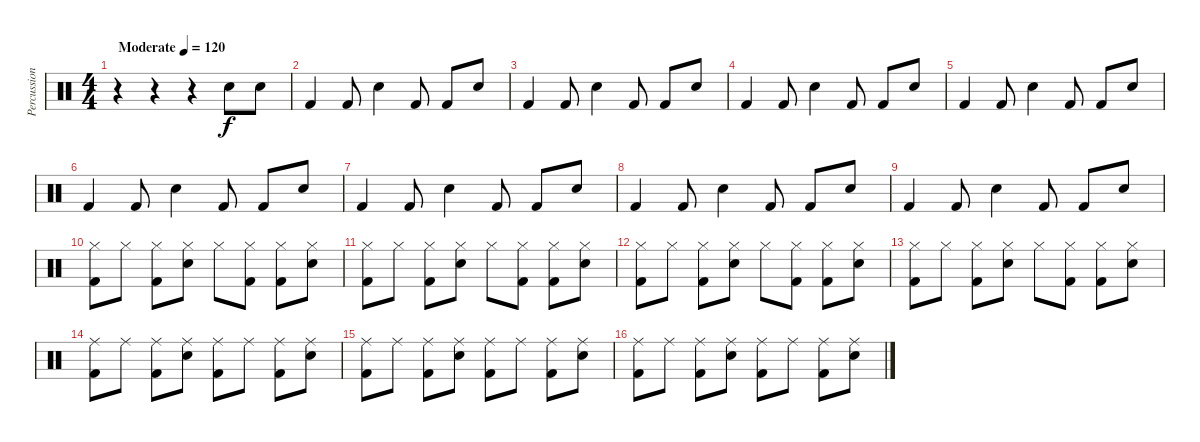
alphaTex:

\track ("Percussions" "Percussion") {instrument percussion}
\staff {score}
\articulation defaults
\ts (4 4)
\tempo (120 "Moderate")
\clef neutral
\ks c
r.4{dy f} r.4 r.4 "Electric Snare (hit)".8 "Electric Snare (hit)".8 |
"Kick (hit) 2".4 "Kick (hit) 2".8 "Electric Snare (hit)".4 "Kick (hit) 2".8 "Kick (hit) 2".8 "Electric Snare (hit)".8 |
"Kick (hit) 2".4 "Kick (hit) 2".8 "Electric Snare (hit)".4 "Kick (hit) 2".8 "Kick (hit) 2".8 "Electric Snare (hit)".8 |
"Kick (hit) 2".4 "Kick (hit) 2".8 "Electric Snare (hit)".4 "Kick (hit) 2".8 "Kick (hit) 2".8 "Electric Snare (hit)".8 |
"Kick (hit) 2".4 "Kick (hit) 2".8 "Electric Snare (hit)".4 "Kick (hit) 2".8 "Kick (hit) 2".8 "Electric Snare (hit)".8 |
"Kick (hit) 2".4 "Kick (hit) 2".8 "Electric Snare (hit)".4 "Kick (hit) 2".8 "Kick (hit) 2".8 "Electric Snare (hit)".8 |
"Kick (hit) 2".4 "Kick (hit) 2".8 "Electric Snare (hit)".4 "Kick (hit) 2".8 "Kick (hit) 2".8 "Electric Snare (hit)".8 |
"Kick (hit) 2".4 "Kick (hit) 2".8 "Electric Snare (hit)".4 "Kick (hit) 2".8 "Kick (hit) 2".8 "Electric Snare (hit)".8 |
"Kick (hit) 2".4 "Kick (hit) 2".8 "Electric Snare (hit)".4 "Kick (hit) 2".8 "Kick (hit) 2".8 "Electric Snare (hit)".8 |
("Hi-Hat (closed)" "Kick (hit) 2").8 "Hi-Hat (closed)".8 ("Hi-Hat (closed)" "Kick (hit) 2").8 ("Hi-Hat (closed)" "Electric Snare (hit)").8 "Hi-Hat (closed)".8 ("Hi-Hat (closed)" "Kick (hit) 2").8 ("Hi-Hat (closed)" "Kick (hit) 2").8 ("Hi-Hat (closed)" "Electric Snare (hit)").8 |
("Hi-Hat (closed)" "Kick (hit) 2").8 "Hi-Hat (closed)".8 ("Hi-Hat (closed)" "Kick (hit) 2").8 ("Hi-Hat (closed)" "Electric Snare (hit)").8 "Hi-Hat (closed)".8 ("Hi-Hat (closed)" "Kick (hit) 2").8 ("Hi-Hat (closed)" "Kick (hit) 2").8 ("Hi-Hat (closed)" "Electric Snare (hit)").8 |
("Hi-Hat (closed)" "Kick (hit) 2").8 "Hi-Hat (closed)".8 ("Hi-Hat (closed)" "Kick (hit) 2").8 ("Hi-Hat (closed)" "Electric Snare (hit)").8 "Hi-Hat (closed)".8 ("Hi-Hat (closed)" "Kick (hit) 2").8 ("Hi-Hat (closed)" "Kick (hit) 2").8 ("Hi-Hat (closed)" "Electric Snare (hit)").8 |
("Hi-Hat (closed)" "Kick (hit) 2").8 "Hi-Hat (closed)".8 ("Hi-Hat (closed)" "Kick (hit) 2").8 ("Hi-Hat (closed)" "Electric Snare (hit)").8 "Hi-Hat (closed)".8 ("Hi-Hat (closed)" "Kick (hit) 2").8 ("Hi-Hat (closed)" "Kick (hit) 2").8 ("Hi-Hat (closed)" "Electric Snare (hit)").8 |
("Ride (middle)" "Kick (hit) 2").8 "Ride (middle)".8 ("Ride (middle)" "Kick (hit) 2").8 ("Ride (middle)" "Electric Snare (hit)").8 ("Ride (middle)" "Kick (hit) 2").8 "Ride (middle)".8 ("Ride (middle)" "Kick (hit) 2").8 ("Ride (middle)" "Electric Snare (hit)").8 |
("Ride (middle)" "Kick (hit) 2").8 "Ride (middle)".8 ("Ride (middle)" "Kick (hit) 2").8 ("Ride (middle)" "Electric Snare (hit)").8 ("Ride (middle)" "Kick (hit) 2").8 "Ride (middle)".8 ("Ride (middle)" "Kick (hit) 2").8 ("Ride (middle)" "Electric Snare (hit)").8 |
("Ride (middle)" "Kick (hit) 2").8 "Ride (middle)".8 ("Ride (middle)" "Kick (hit) 2").8 ("Ride (middle)" "Electric Snare (hit)").8 ("Ride (middle)" "Kick (hit) 2").8 "Ride (middle)".8 ("Ride (middle)" "Kick (hit) 2").8 ("Ride (middle)" "Electric Snare (hit)").8
